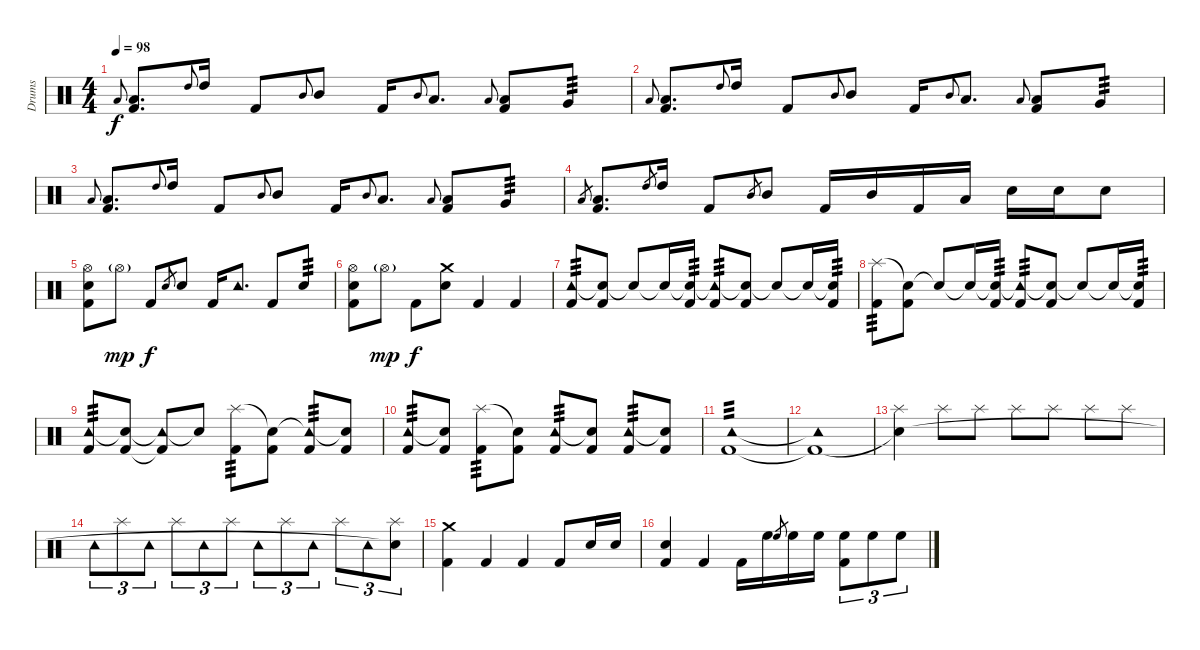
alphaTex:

\track ("Drums" "Drums") {instrument percussion}
\staff {score}
\articulation defaults
\ts (4 4)
\tempo 98
\clef neutral
\ks c "Low Tom (hit)".8{gr onbeat dy f}
("Low Tom (hit)" "Kick (hit) 2").8{d} "High Tom (hit)".8{gr onbeat} "High Tom (hit)".16 "Kick (hit) 2".8 "Mid Tom (hit)".8{gr onbeat} "Mid Tom (hit)".8 "Kick (hit) 2".16 "Mid Tom (hit)".8{gr onbeat} "Low Tom (hit)".8{d} "Low Tom (hit)".8{gr onbeat} ("Low Tom (hit)" "Kick (hit) 2").8 "Very Low Tom (hit)".8{tp 3} |
"Low Tom (hit)".8{gr onbeat} ("Low Tom (hit)" "Kick (hit) 2").8{d} "High Tom (hit)".8{gr onbeat} "High Tom (hit)".16 "Kick (hit) 2".8 "Mid Tom (hit)".8{gr onbeat} "Mid Tom (hit)".8 "Kick (hit) 2".16 "Mid Tom (hit)".8{gr onbeat} "Low Tom (hit)".8{d} "Low Tom (hit)".8{gr onbeat} ("Low Tom (hit)" "Kick (hit) 2").8 "Very Low Tom (hit)".8{tp 3} |
"Low Tom (hit)".8{gr onbeat} ("Low Tom (hit)" "Kick (hit) 2").8{d} "High Tom (hit)".8{gr onbeat} "High Tom (hit)".16 "Kick (hit) 2".8 "Mid Tom (hit)".8{gr onbeat} "Mid Tom (hit)".8 "Kick (hit) 2".16 "Mid Tom (hit)".8{gr onbeat} "Low Tom (hit)".8{d} "Low Tom (hit)".8{gr onbeat} ("Low Tom (hit)" "Kick (hit) 2").8 "Very Low Tom (hit)".8{tp 3} |
"Low Tom (hit)".8{gr} ("Low Tom (hit)" "Kick (hit) 2").8{d} "High Tom (hit)".8{gr} "High Tom (hit)".16 "Kick (hit) 2".8 "Mid Tom (hit)".8{gr} "Mid Tom (hit)".8 "Kick (hit) 2".16 "Mid Tom (hit)".16 "Kick (hit) 2".16 "Low Tom (hit)".16 "Snare (hit) 2".16 "Snare (hit) 2".16 "Snare (hit) 2".8 |
("Hi-Hat (open)" "Snare (hit) 2" "Kick (hit) 2").8 "Hi-Hat (open)"{g}.8{dy mp} "Kick (hit) 2".8{dy f} "Snare (hit) 2".8{gr} "Snare (hit) 2".8 "Kick (hit) 2".16 "Tambourine (hit)".8{d} "Kick (hit) 2".8 "Snare (hit) 2".8{tp 3} |
("Hi-Hat (open)" "Snare (hit) 2" "Kick (hit) 2").8 "Hi-Hat (open)"{g}.8{dy mp} "Kick (hit) 2".8{dy f} ("Crash medium (hit)" "Snare (hit) 2").8 "Kick (hit) 2".4 "Kick (hit) 2".4 |
("Tambourine (hit)" "Kick (hit) 2").8{tp 3} ("Snare (hit)"{t} "Kick (hit) 2").8 "Snare (hit)"{t}.8 "Snare (hit)"{t}.16 ("Snare (hit)"{t} "Kick (hit) 2").16{tp 3} ("Tambourine (hit)"{t} "Kick (hit) 2").8{tp 3} ("Snare (hit)"{t} "Kick (hit) 2").8 "Snare (hit)"{t}.8 "Snare (hit)"{t}.16 ("Snare (hit)"{t} "Kick (hit) 2").16{tp 3} |
("Splash (hit)" "Kick (hit) 2").8{tp 3} ("Snare (hit)"{t} "Kick (hit) 2").8 "Snare (hit)"{t}.8 "Snare (hit)"{t}.16 ("Snare (hit)"{t} "Kick (hit) 2").16{tp 3} ("Tambourine (hit)"{t} "Kick (hit) 2").8{tp 3} ("Snare (hit)"{t} "Kick (hit) 2").8 "Snare (hit)"{t}.8 "Snare (hit)"{t}.16 ("Snare (hit)"{t} "Kick (hit) 2").16{tp 3} |
("Tambourine (hit)" "Kick (hit) 2").8{tp 3} ("Snare (hit)"{t} "Kick (hit) 2").8 ("Tambourine (hit)"{t} "Kick (hit) 2"{t}).8 "Snare (hit)"{t}.8 ("Splash (hit)" "Kick (hit) 2").8{tp 3} ("Snare (hit)"{t} "Kick (hit) 2").8 ("Tambourine (hit)"{t} "Kick (hit) 2").8{tp 3} ("Snare (hit)"{t} "Kick (hit) 2").8 |
("Tambourine (hit)" "Kick (hit) 2").8{tp 3} ("Snare (hit)"{t} "Kick (hit) 2").8 ("Splash (hit)" "Kick (hit) 2").8{tp 3} ("Snare (hit)"{t} "Kick (hit) 2").8 ("Tambourine (hit)" "Kick (hit) 2").8{tp 3} ("Snare (hit)"{t} "Kick (hit) 2").8 ("Tambourine (hit)" "Kick (hit) 2").8{tp 3} ("Snare (hit)"{t} "Kick (hit) 2").8 |
("Tambourine (hit)" "Kick (hit) 2").1{tp 3} |
("Tambourine (hit)"{t} "Kick (hit) 2"{t}).1 |
("Splash (hit)" "Snare (hit)"{t}).4 "Splash (hit)".8 "Splash (hit)".8 "Splash (hit)".8 "Splash (hit)".8 "Splash (hit)".8 "Splash (hit)".8 |
"Tambourine (hit)".8{tu (3 2)} "Splash (hit)".8{tu (3 2)} "Tambourine (hit)".8{tu (3 2)} "Splash (hit)".8{tu (3 2)} "Tambourine (hit)".8{tu (3 2)} "Splash (hit)".8{tu (3 2)} "Tambourine (hit)".8{tu (3 2)} "Splash (hit)".8{tu (3 2)} "Tambourine (hit)".8{tu (3 2)} "Splash (hit)".8{tu (3 2)} "Tambourine (hit)".8{tu (3 2)} ("Splash (hit)" "Snare (hit)"{t}).8{tu (3 2)} |
("Crash medium (hit)" "Kick (hit) 2").4 "Kick (hit) 2".4 "Kick (hit) 2".4 "Kick (hit) 2".8 "Snare (hit) 2".16 "Snare (hit) 2".16 |
("Snare (hit) 2" "Kick (hit) 2").4 "Kick (hit) 2".4 "Kick (hit) 2".16 "High Floor Tom (hit)".16 "High Floor Tom (hit)".8{gr} "High Floor Tom (hit)".16 "High Floor Tom (hit)".16 ("High Floor Tom (hit)" "Kick (hit) 2").8{tu (3 2)} "High Floor Tom (hit)".8{tu (3 2)} "High Floor Tom (hit)".8{tu (3 2)}
